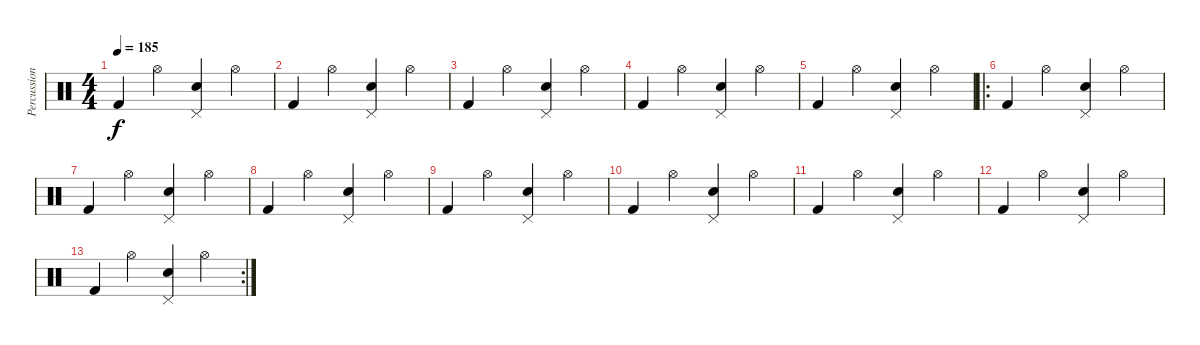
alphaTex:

\track ("Percussion" "Percussion") {instrument percussion}
\staff {score}
\articulation defaults
\ts (4 4)
\tempo 185
\clef neutral
\ks c "Kick (hit) 2".4{dy f} "Hi-Hat (open)".4
("Pedal Hi-Hat (hit)" "Electric Snare (hit)").4 "Hi-Hat (open)".4 |
"Kick (hit) 2".4 "Hi-Hat (open)".4 ("Pedal Hi-Hat (hit)" "Electric Snare (hit)").4 "Hi-Hat (open)".4 |
"Kick (hit) 2".4 "Hi-Hat (open)".4 ("Pedal Hi-Hat (hit)" "Electric Snare (hit)").4 "Hi-Hat (open)".4 |
"Kick (hit) 2".4 "Hi-Hat (open)".4 ("Pedal Hi-Hat (hit)" "Electric Snare (hit)").4 "Hi-Hat (open)".4 |
"Kick (hit) 2".4 "Hi-Hat (open)".4 ("Pedal Hi-Hat (hit)" "Electric Snare (hit)").4 "Hi-Hat (open)".4 |
\ro "Kick (hit) 2".4 "Hi-Hat (open)".4
("Pedal Hi-Hat (hit)" "Electric Snare (hit)").4 "Hi-Hat (open)".4 |
"Kick (hit) 2".4 "Hi-Hat (open)".4 ("Pedal Hi-Hat (hit)" "Electric Snare (hit)").4 "Hi-Hat (open)".4 |
"Kick (hit) 2".4 "Hi-Hat (open)".4 ("Pedal Hi-Hat (hit)" "Electric Snare (hit)").4 "Hi-Hat (open)".4 |
"Kick (hit) 2".4 "Hi-Hat (open)".4 ("Pedal Hi-Hat (hit)" "Electric Snare (hit)").4 "Hi-Hat (open)".4 |
"Kick (hit) 2".4 "Hi-Hat (open)".4 ("Pedal Hi-Hat (hit)" "Electric Snare (hit)").4 "Hi-Hat (open)".4 |
"Kick (hit) 2".4 "Hi-Hat (open)".4 ("Pedal Hi-Hat (hit)" "Electric Snare (hit)").4 "Hi-Hat (open)".4 |
"Kick (hit) 2".4 "Hi-Hat (open)".4 ("Pedal Hi-Hat (hit)" "Electric Snare (hit)").4 "Hi-Hat (open)".4 |
\rc 2 "Kick (hit) 2".4 "Hi-Hat (open)".4
("Pedal Hi-Hat (hit)" "Electric Snare (hit)").4 "Hi-Hat (open)".4
